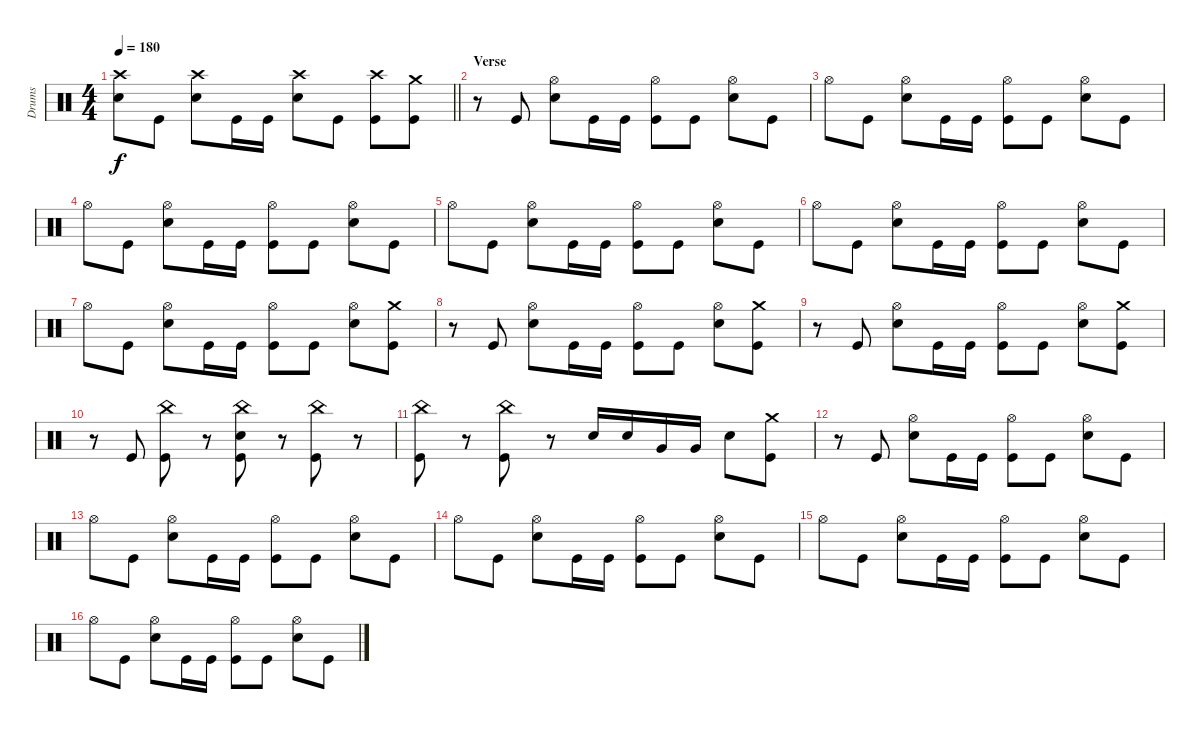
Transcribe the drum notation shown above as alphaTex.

\track ("Drums" "Drums") {instrument percussion}
\staff {score}
\articulation defaults
\ts (4 4)
\tempo 180
\clef neutral
\barLineRight lightlight
\ks c
("Crash high (hit)" "Snare (hit)"{t}).8{dy f} "Kick (hit)".8 ("Crash high (hit)" "Electric Snare (hit)").8 "Kick (hit)".16 "Kick (hit)".16 ("Crash high (hit)" "Electric Snare (hit)").8 "Kick (hit)".8 ("Crash high (hit)" "Kick (hit)").8 ("Crash medium (hit)" "Kick (hit)").8 |
\section ("" "Verse")
r.8 "Kick (hit)".8 ("Hi-Hat (open)" "Electric Snare (hit)").8 "Kick (hit)".16 "Kick (hit)".16 ("Hi-Hat (open)" "Kick (hit)").8 "Kick (hit)".8 ("Hi-Hat (open)" "Electric Snare (hit)").8 "Kick (hit)".8 |
"Hi-Hat (open)".8 "Kick (hit)".8 ("Hi-Hat (open)" "Electric Snare (hit)").8 "Kick (hit)".16 "Kick (hit)".16 ("Hi-Hat (open)" "Kick (hit)").8 "Kick (hit)".8 ("Hi-Hat (open)" "Electric Snare (hit)").8 "Kick (hit)".8 |
"Hi-Hat (open)".8 "Kick (hit)".8 ("Hi-Hat (open)" "Electric Snare (hit)").8 "Kick (hit)".16 "Kick (hit)".16 ("Hi-Hat (open)" "Kick (hit)").8 "Kick (hit)".8 ("Hi-Hat (open)" "Electric Snare (hit)").8 "Kick (hit)".8 |
"Hi-Hat (open)".8 "Kick (hit)".8 ("Hi-Hat (open)" "Electric Snare (hit)").8 "Kick (hit)".16 "Kick (hit)".16 ("Hi-Hat (open)" "Kick (hit)").8 "Kick (hit)".8 ("Hi-Hat (open)" "Electric Snare (hit)").8 "Kick (hit)".8 |
"Hi-Hat (open)".8 "Kick (hit)".8 ("Hi-Hat (open)" "Electric Snare (hit)").8 "Kick (hit)".16 "Kick (hit)".16 ("Hi-Hat (open)" "Kick (hit)").8 "Kick (hit)".8 ("Hi-Hat (open)" "Electric Snare (hit)").8 "Kick (hit)".8 |
"Hi-Hat (open)".8 "Kick (hit)".8 ("Hi-Hat (open)" "Electric Snare (hit)").8 "Kick (hit)".16 "Kick (hit)".16 ("Hi-Hat (open)" "Kick (hit)").8 "Kick (hit)".8 ("Hi-Hat (open)" "Electric Snare (hit)").8 ("Crash medium (hit)" "Kick (hit)").8 |
r.8 "Kick (hit)".8 ("Hi-Hat (open)" "Electric Snare (hit)").8 "Kick (hit)".16 "Kick (hit)".16 ("Hi-Hat (open)" "Kick (hit)").8 "Kick (hit)".8 ("Hi-Hat (open)" "Electric Snare (hit)").8 ("Crash medium (hit)" "Kick (hit)").8 |
r.8 "Kick (hit)".8 ("Hi-Hat (open)" "Electric Snare (hit)").8 "Kick (hit)".16 "Kick (hit)".16 ("Hi-Hat (open)" "Kick (hit)").8 "Kick (hit)".8 ("Hi-Hat (open)" "Electric Snare (hit)").8 ("Crash medium (hit)" "Kick (hit)").8 |
r.8 "Kick (hit)".8 ("China (hit)" "Kick (hit)").8 r.8 ("China (hit)" "Electric Snare (hit)" "Kick (hit)").8 r.8 ("China (hit)" "Kick (hit)").8 r.8 |
("China (hit)" "Kick (hit)").8 r.8 ("China (hit)" "Kick (hit)").8 r.8 "Electric Snare (hit)".16 "Electric Snare (hit)".16 "Very Low Tom (hit)".16 "Very Low Tom (hit)".16 "Electric Snare (hit)".8 ("Crash medium (hit)" "Kick (hit)").8 |
r.8 "Kick (hit)".8 ("Hi-Hat (open)" "Electric Snare (hit)").8 "Kick (hit)".16 "Kick (hit)".16 ("Hi-Hat (open)" "Kick (hit)").8 "Kick (hit)".8 ("Hi-Hat (open)" "Electric Snare (hit)").8 "Kick (hit)".8 |
"Hi-Hat (open)".8 "Kick (hit)".8 ("Hi-Hat (open)" "Electric Snare (hit)").8 "Kick (hit)".16 "Kick (hit)".16 ("Hi-Hat (open)" "Kick (hit)").8 "Kick (hit)".8 ("Hi-Hat (open)" "Electric Snare (hit)").8 "Kick (hit)".8 |
"Hi-Hat (open)".8 "Kick (hit)".8 ("Hi-Hat (open)" "Electric Snare (hit)").8 "Kick (hit)".16 "Kick (hit)".16 ("Hi-Hat (open)" "Kick (hit)").8 "Kick (hit)".8 ("Hi-Hat (open)" "Electric Snare (hit)").8 "Kick (hit)".8 |
"Hi-Hat (open)".8 "Kick (hit)".8 ("Hi-Hat (open)" "Electric Snare (hit)").8 "Kick (hit)".16 "Kick (hit)".16 ("Hi-Hat (open)" "Kick (hit)").8 "Kick (hit)".8 ("Hi-Hat (open)" "Electric Snare (hit)").8 "Kick (hit)".8 |
"Hi-Hat (open)".8 "Kick (hit)".8 ("Hi-Hat (open)" "Electric Snare (hit)").8 "Kick (hit)".16 "Kick (hit)".16 ("Hi-Hat (open)" "Kick (hit)").8 "Kick (hit)".8 ("Hi-Hat (open)" "Electric Snare (hit)").8 "Kick (hit)".8
